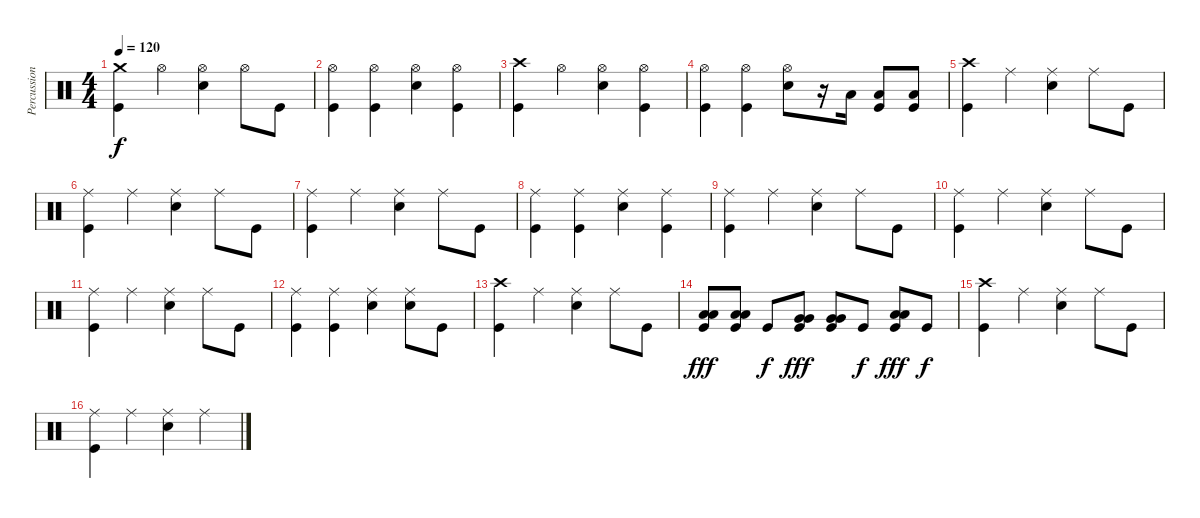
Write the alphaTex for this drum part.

\track ("Percussion" "Percussion") {instrument percussion}
\staff {score}
\articulation defaults
\ts (4 4)
\tempo 120
\clef neutral
\ks c
("Crash medium (hit)" "Kick (hit)").4{dy f} "Hi-Hat (open)".4 ("Hi-Hat (open)" "Snare (hit) 2").4 "Hi-Hat (open)".8 "Kick (hit)".8 |
("Hi-Hat (open)" "Kick (hit)").4 ("Hi-Hat (open)" "Kick (hit)").4 ("Hi-Hat (open)" "Snare (hit) 2").4 ("Hi-Hat (open)" "Kick (hit)").4 |
("Crash high (hit)" "Kick (hit)").4 "Hi-Hat (open)".4 ("Hi-Hat (open)" "Snare (hit) 2").4 ("Hi-Hat (open)" "Kick (hit)").4 |
("Hi-Hat (open)" "Kick (hit)").4 ("Hi-Hat (open)" "Kick (hit)").4 ("Hi-Hat (open)" "Snare (hit) 2").8 r.16 "Low Floor Tom (hit)".16 ("Low Floor Tom (hit)" "Kick (hit)").8 ("Low Tom (hit)" "Kick (hit)").8 |
("Crash high (hit)" "Kick (hit)").4 "Ride (middle)".4 ("Ride (middle)" "Snare (hit) 2").4 "Ride (middle)".8 "Kick (hit)".8 |
("Ride (middle)" "Kick (hit)").4 "Ride (middle)".4 ("Ride (middle)" "Snare (hit) 2").4 "Ride (middle)".8 "Kick (hit)".8 |
("Ride (middle)" "Kick (hit)").4 "Ride (middle)".4 ("Ride (middle)" "Snare (hit) 2").4 "Ride (middle)".8 "Kick (hit)".8 |
("Ride (middle)" "Kick (hit)").4 ("Ride (middle)" "Kick (hit)").4 ("Ride (middle)" "Snare (hit) 2").4 ("Ride (middle)" "Kick (hit)").4 |
("Ride (middle)" "Kick (hit)").4 "Ride (middle)".4 ("Ride (middle)" "Snare (hit) 2").4 "Ride (middle)".8 "Kick (hit)".8 |
("Ride (middle)" "Kick (hit)").4 "Ride (middle)".4 ("Ride (middle)" "Snare (hit) 2").4 "Ride (middle)".8 "Kick (hit)".8 |
("Ride (middle)" "Kick (hit)").4 "Ride (middle)".4 ("Ride (middle)" "Snare (hit) 2").4 "Ride (middle)".8 "Kick (hit)".8 |
("Ride (middle)" "Kick (hit)").4 ("Ride (middle)" "Kick (hit)").4 ("Ride (middle)" "Snare (hit) 2").4 ("Ride (middle)" "Snare (hit) 2").8 "Kick (hit)".8 |
("Crash high (hit)" "Kick (hit)").4 "Ride (middle)".4 ("Ride (middle)" "Snare (hit) 2").4 "Ride (middle)".8 "Kick (hit)".8 |
("Low Tom (hit)" "Kick (hit)" "Low Tom (hit)").8{dy fff} ("Low Tom (hit)" "Kick (hit)" "Low Tom (hit)").8 "Kick (hit)".8{dy f} ("Very Low Tom (hit)" "Kick (hit)" "Very Low Tom (hit)").8{dy fff} ("Very Low Tom (hit)" "Kick (hit)" "Very Low Tom (hit)").8 "Kick (hit)".8{dy f} ("Low Floor Tom (hit)" "Kick (hit)" "Low Floor Tom (hit)").8{dy fff} "Kick (hit)".8{dy f} |
("Crash high (hit)" "Kick (hit)").4 "Ride (middle)".4 ("Ride (middle)" "Snare (hit) 2").4 "Ride (middle)".8 "Kick (hit)".8 |
("Ride (middle)" "Kick (hit)").4 "Ride (middle)".4 ("Ride (middle)" "Snare (hit) 2").4 "Ride (middle)".4
